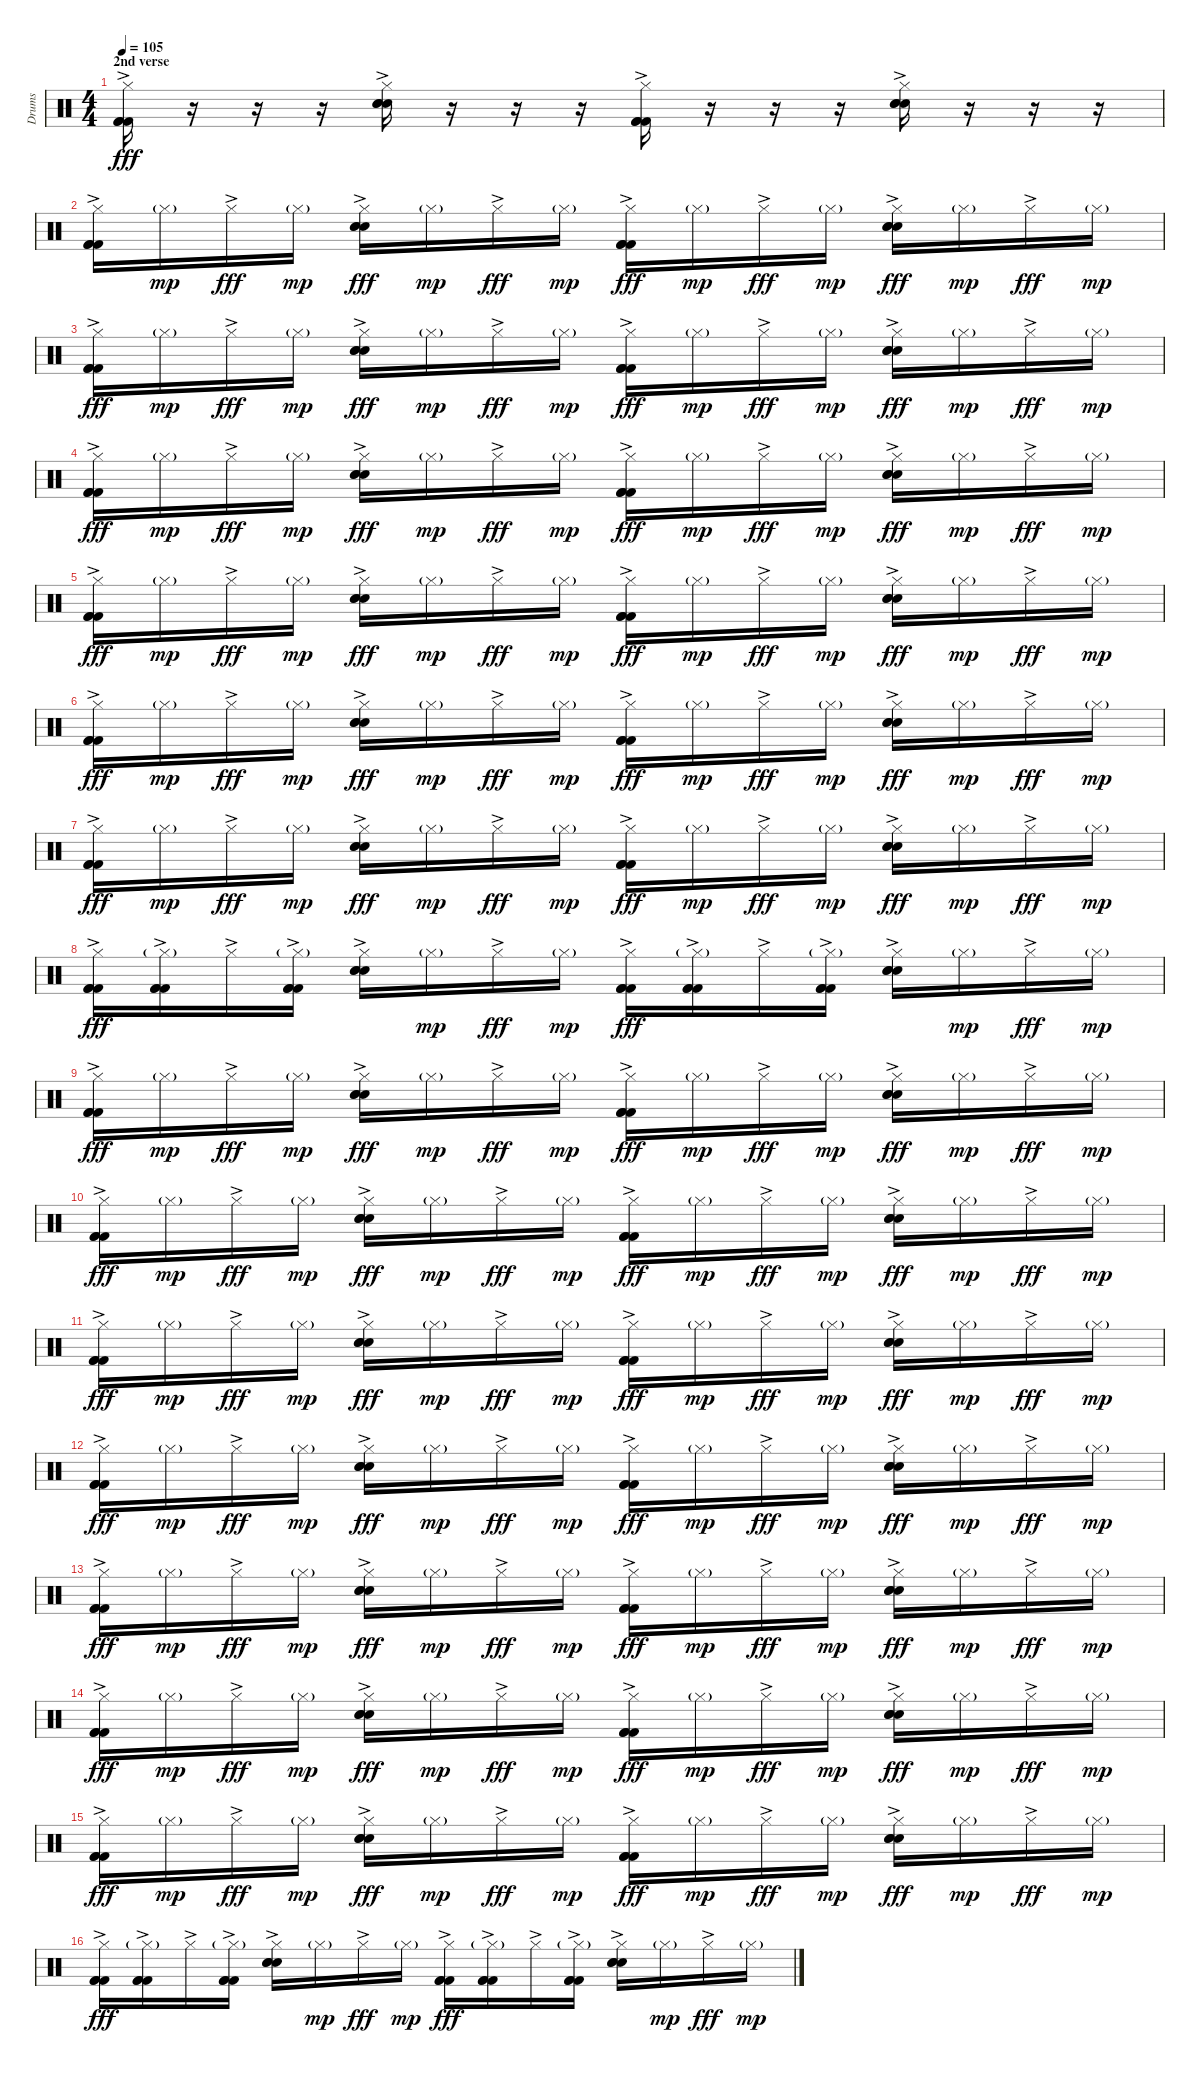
\track ("Drums" "Drums") {instrument percussion}
\staff {score}
\articulation defaults
\ts (4 4)
\section ("" "2nd verse")
\tempo 105
\clef neutral
\ks c
("Hi-Hat (closed)"{ac} "Kick (hit) 2"{ac} "Kick (hit) 2"{ac} "Kick (hit) 2"{ac}).16{dy fff} r.16 r.16 r.16 ("Hi-Hat (closed)"{ac} "Snare (hit) 2"{ac} "Snare (hit) 2"{ac} "Snare (hit) 2"{ac}).16 r.16 r.16 r.16 ("Hi-Hat (closed)"{ac} "Kick (hit) 2"{ac} "Kick (hit) 2"{ac} "Kick (hit) 2"{ac}).16 r.16 r.16 r.16 ("Hi-Hat (closed)"{ac} "Snare (hit) 2"{ac} "Snare (hit) 2"{ac} "Snare (hit) 2"{ac}).16 r.16 r.16 r.16 |
("Hi-Hat (closed)"{ac} "Kick (hit) 2"{ac} "Kick (hit) 2"{ac} "Kick (hit) 2"{ac}).16 "Hi-Hat (closed)"{g}.16{dy mp} "Hi-Hat (closed)"{ac}.16{dy fff} "Hi-Hat (closed)"{g}.16{dy mp} ("Hi-Hat (closed)"{ac} "Snare (hit) 2"{ac} "Snare (hit) 2"{ac} "Snare (hit) 2"{ac}).16{dy fff} "Hi-Hat (closed)"{g}.16{dy mp} "Hi-Hat (closed)"{ac}.16{dy fff} "Hi-Hat (closed)"{g}.16{dy mp} ("Hi-Hat (closed)"{ac} "Kick (hit) 2"{ac} "Kick (hit) 2"{ac} "Kick (hit) 2"{ac}).16{dy fff} "Hi-Hat (closed)"{g}.16{dy mp} "Hi-Hat (closed)"{ac}.16{dy fff} "Hi-Hat (closed)"{g}.16{dy mp} ("Hi-Hat (closed)"{ac} "Snare (hit) 2"{ac} "Snare (hit) 2"{ac} "Snare (hit) 2"{ac}).16{dy fff} "Hi-Hat (closed)"{g}.16{dy mp} "Hi-Hat (closed)"{ac}.16{dy fff} "Hi-Hat (closed)"{g}.16{dy mp} |
("Hi-Hat (closed)"{ac} "Kick (hit) 2"{ac} "Kick (hit) 2"{ac} "Kick (hit) 2"{ac}).16{dy fff} "Hi-Hat (closed)"{g}.16{dy mp} "Hi-Hat (closed)"{ac}.16{dy fff} "Hi-Hat (closed)"{g}.16{dy mp} ("Hi-Hat (closed)"{ac} "Snare (hit) 2"{ac} "Snare (hit) 2"{ac} "Snare (hit) 2"{ac}).16{dy fff} "Hi-Hat (closed)"{g}.16{dy mp} "Hi-Hat (closed)"{ac}.16{dy fff} "Hi-Hat (closed)"{g}.16{dy mp} ("Hi-Hat (closed)"{ac} "Kick (hit) 2"{ac} "Kick (hit) 2"{ac} "Kick (hit) 2"{ac}).16{dy fff} "Hi-Hat (closed)"{g}.16{dy mp} "Hi-Hat (closed)"{ac}.16{dy fff} "Hi-Hat (closed)"{g}.16{dy mp} ("Hi-Hat (closed)"{ac} "Snare (hit) 2"{ac} "Snare (hit) 2"{ac} "Snare (hit) 2"{ac}).16{dy fff} "Hi-Hat (closed)"{g}.16{dy mp} "Hi-Hat (closed)"{ac}.16{dy fff} "Hi-Hat (closed)"{g}.16{dy mp} |
("Hi-Hat (closed)"{ac} "Kick (hit) 2"{ac} "Kick (hit) 2"{ac} "Kick (hit) 2"{ac}).16{dy fff} "Hi-Hat (closed)"{g}.16{dy mp} "Hi-Hat (closed)"{ac}.16{dy fff} "Hi-Hat (closed)"{g}.16{dy mp} ("Hi-Hat (closed)"{ac} "Snare (hit) 2"{ac} "Snare (hit) 2"{ac} "Snare (hit) 2"{ac}).16{dy fff} "Hi-Hat (closed)"{g}.16{dy mp} "Hi-Hat (closed)"{ac}.16{dy fff} "Hi-Hat (closed)"{g}.16{dy mp} ("Hi-Hat (closed)"{ac} "Kick (hit) 2"{ac} "Kick (hit) 2"{ac} "Kick (hit) 2"{ac}).16{dy fff} "Hi-Hat (closed)"{g}.16{dy mp} "Hi-Hat (closed)"{ac}.16{dy fff} "Hi-Hat (closed)"{g}.16{dy mp} ("Hi-Hat (closed)"{ac} "Snare (hit) 2"{ac} "Snare (hit) 2"{ac} "Snare (hit) 2"{ac}).16{dy fff} "Hi-Hat (closed)"{g}.16{dy mp} "Hi-Hat (closed)"{ac}.16{dy fff} "Hi-Hat (closed)"{g}.16{dy mp} |
("Hi-Hat (closed)"{ac} "Kick (hit) 2"{ac} "Kick (hit) 2"{ac} "Kick (hit) 2"{ac}).16{dy fff} "Hi-Hat (closed)"{g}.16{dy mp} "Hi-Hat (closed)"{ac}.16{dy fff} "Hi-Hat (closed)"{g}.16{dy mp} ("Hi-Hat (closed)"{ac} "Snare (hit) 2"{ac} "Snare (hit) 2"{ac} "Snare (hit) 2"{ac}).16{dy fff} "Hi-Hat (closed)"{g}.16{dy mp} "Hi-Hat (closed)"{ac}.16{dy fff} "Hi-Hat (closed)"{g}.16{dy mp} ("Hi-Hat (closed)"{ac} "Kick (hit) 2"{ac} "Kick (hit) 2"{ac} "Kick (hit) 2"{ac}).16{dy fff} "Hi-Hat (closed)"{g}.16{dy mp} "Hi-Hat (closed)"{ac}.16{dy fff} "Hi-Hat (closed)"{g}.16{dy mp} ("Hi-Hat (closed)"{ac} "Snare (hit) 2"{ac} "Snare (hit) 2"{ac} "Snare (hit) 2"{ac}).16{dy fff} "Hi-Hat (closed)"{g}.16{dy mp} "Hi-Hat (closed)"{ac}.16{dy fff} "Hi-Hat (closed)"{g}.16{dy mp} |
("Hi-Hat (closed)"{ac} "Kick (hit) 2"{ac} "Kick (hit) 2"{ac} "Kick (hit) 2"{ac}).16{dy fff} "Hi-Hat (closed)"{g}.16{dy mp} "Hi-Hat (closed)"{ac}.16{dy fff} "Hi-Hat (closed)"{g}.16{dy mp} ("Hi-Hat (closed)"{ac} "Snare (hit) 2"{ac} "Snare (hit) 2"{ac} "Snare (hit) 2"{ac}).16{dy fff} "Hi-Hat (closed)"{g}.16{dy mp} "Hi-Hat (closed)"{ac}.16{dy fff} "Hi-Hat (closed)"{g}.16{dy mp} ("Hi-Hat (closed)"{ac} "Kick (hit) 2"{ac} "Kick (hit) 2"{ac} "Kick (hit) 2"{ac}).16{dy fff} "Hi-Hat (closed)"{g}.16{dy mp} "Hi-Hat (closed)"{ac}.16{dy fff} "Hi-Hat (closed)"{g}.16{dy mp} ("Hi-Hat (closed)"{ac} "Snare (hit) 2"{ac} "Snare (hit) 2"{ac} "Snare (hit) 2"{ac}).16{dy fff} "Hi-Hat (closed)"{g}.16{dy mp} "Hi-Hat (closed)"{ac}.16{dy fff} "Hi-Hat (closed)"{g}.16{dy mp} |
("Hi-Hat (closed)"{ac} "Kick (hit) 2"{ac} "Kick (hit) 2"{ac} "Kick (hit) 2"{ac}).16{dy fff} "Hi-Hat (closed)"{g}.16{dy mp} "Hi-Hat (closed)"{ac}.16{dy fff} "Hi-Hat (closed)"{g}.16{dy mp} ("Hi-Hat (closed)"{ac} "Snare (hit) 2"{ac} "Snare (hit) 2"{ac} "Snare (hit) 2"{ac}).16{dy fff} "Hi-Hat (closed)"{g}.16{dy mp} "Hi-Hat (closed)"{ac}.16{dy fff} "Hi-Hat (closed)"{g}.16{dy mp} ("Hi-Hat (closed)"{ac} "Kick (hit) 2"{ac} "Kick (hit) 2"{ac} "Kick (hit) 2"{ac}).16{dy fff} "Hi-Hat (closed)"{g}.16{dy mp} "Hi-Hat (closed)"{ac}.16{dy fff} "Hi-Hat (closed)"{g}.16{dy mp} ("Hi-Hat (closed)"{ac} "Snare (hit) 2"{ac} "Snare (hit) 2"{ac} "Snare (hit) 2"{ac}).16{dy fff} "Hi-Hat (closed)"{g}.16{dy mp} "Hi-Hat (closed)"{ac}.16{dy fff} "Hi-Hat (closed)"{g}.16{dy mp} |
("Hi-Hat (closed)"{ac} "Kick (hit) 2"{ac} "Kick (hit) 2"{ac} "Kick (hit) 2"{ac}).16{dy fff} ("Hi-Hat (closed)"{g} "Kick (hit) 2"{ac} "Kick (hit) 2"{ac} "Kick (hit) 2"{ac}).16 "Hi-Hat (closed)"{ac}.16 ("Hi-Hat (closed)"{g} "Kick (hit) 2"{ac} "Kick (hit) 2"{ac} "Kick (hit) 2"{ac}).16 ("Hi-Hat (closed)"{ac} "Snare (hit) 2"{ac} "Snare (hit) 2"{ac} "Snare (hit) 2"{ac}).16 "Hi-Hat (closed)"{g}.16{dy mp} "Hi-Hat (closed)"{ac}.16{dy fff} "Hi-Hat (closed)"{g}.16{dy mp} ("Hi-Hat (closed)"{ac} "Kick (hit) 2"{ac} "Kick (hit) 2"{ac} "Kick (hit) 2"{ac}).16{dy fff} ("Hi-Hat (closed)"{g} "Kick (hit) 2"{ac} "Kick (hit) 2"{ac} "Kick (hit) 2"{ac}).16 "Hi-Hat (closed)"{ac}.16 ("Hi-Hat (closed)"{g} "Kick (hit) 2"{ac} "Kick (hit) 2"{ac} "Kick (hit) 2"{ac}).16 ("Hi-Hat (closed)"{ac} "Snare (hit) 2"{ac} "Snare (hit) 2"{ac} "Snare (hit) 2"{ac}).16 "Hi-Hat (closed)"{g}.16{dy mp} "Hi-Hat (closed)"{ac}.16{dy fff} "Hi-Hat (closed)"{g}.16{dy mp} |
("Hi-Hat (closed)"{ac} "Kick (hit) 2"{ac} "Kick (hit) 2"{ac} "Kick (hit) 2"{ac}).16{dy fff} "Hi-Hat (closed)"{g}.16{dy mp} "Hi-Hat (closed)"{ac}.16{dy fff} "Hi-Hat (closed)"{g}.16{dy mp} ("Hi-Hat (closed)"{ac} "Snare (hit) 2"{ac} "Snare (hit) 2"{ac} "Snare (hit) 2"{ac}).16{dy fff} "Hi-Hat (closed)"{g}.16{dy mp} "Hi-Hat (closed)"{ac}.16{dy fff} "Hi-Hat (closed)"{g}.16{dy mp} ("Hi-Hat (closed)"{ac} "Kick (hit) 2"{ac} "Kick (hit) 2"{ac} "Kick (hit) 2"{ac}).16{dy fff} "Hi-Hat (closed)"{g}.16{dy mp} "Hi-Hat (closed)"{ac}.16{dy fff} "Hi-Hat (closed)"{g}.16{dy mp} ("Hi-Hat (closed)"{ac} "Snare (hit) 2"{ac} "Snare (hit) 2"{ac} "Snare (hit) 2"{ac}).16{dy fff} "Hi-Hat (closed)"{g}.16{dy mp} "Hi-Hat (closed)"{ac}.16{dy fff} "Hi-Hat (closed)"{g}.16{dy mp} |
("Hi-Hat (closed)"{ac} "Kick (hit) 2"{ac} "Kick (hit) 2"{ac} "Kick (hit) 2"{ac}).16{dy fff} "Hi-Hat (closed)"{g}.16{dy mp} "Hi-Hat (closed)"{ac}.16{dy fff} "Hi-Hat (closed)"{g}.16{dy mp} ("Hi-Hat (closed)"{ac} "Snare (hit) 2"{ac} "Snare (hit) 2"{ac} "Snare (hit) 2"{ac}).16{dy fff} "Hi-Hat (closed)"{g}.16{dy mp} "Hi-Hat (closed)"{ac}.16{dy fff} "Hi-Hat (closed)"{g}.16{dy mp} ("Hi-Hat (closed)"{ac} "Kick (hit) 2"{ac} "Kick (hit) 2"{ac} "Kick (hit) 2"{ac}).16{dy fff} "Hi-Hat (closed)"{g}.16{dy mp} "Hi-Hat (closed)"{ac}.16{dy fff} "Hi-Hat (closed)"{g}.16{dy mp} ("Hi-Hat (closed)"{ac} "Snare (hit) 2"{ac} "Snare (hit) 2"{ac} "Snare (hit) 2"{ac}).16{dy fff} "Hi-Hat (closed)"{g}.16{dy mp} "Hi-Hat (closed)"{ac}.16{dy fff} "Hi-Hat (closed)"{g}.16{dy mp} |
("Hi-Hat (closed)"{ac} "Kick (hit) 2"{ac} "Kick (hit) 2"{ac} "Kick (hit) 2"{ac}).16{dy fff} "Hi-Hat (closed)"{g}.16{dy mp} "Hi-Hat (closed)"{ac}.16{dy fff} "Hi-Hat (closed)"{g}.16{dy mp} ("Hi-Hat (closed)"{ac} "Snare (hit) 2"{ac} "Snare (hit) 2"{ac} "Snare (hit) 2"{ac}).16{dy fff} "Hi-Hat (closed)"{g}.16{dy mp} "Hi-Hat (closed)"{ac}.16{dy fff} "Hi-Hat (closed)"{g}.16{dy mp} ("Hi-Hat (closed)"{ac} "Kick (hit) 2"{ac} "Kick (hit) 2"{ac} "Kick (hit) 2"{ac}).16{dy fff} "Hi-Hat (closed)"{g}.16{dy mp} "Hi-Hat (closed)"{ac}.16{dy fff} "Hi-Hat (closed)"{g}.16{dy mp} ("Hi-Hat (closed)"{ac} "Snare (hit) 2"{ac} "Snare (hit) 2"{ac} "Snare (hit) 2"{ac}).16{dy fff} "Hi-Hat (closed)"{g}.16{dy mp} "Hi-Hat (closed)"{ac}.16{dy fff} "Hi-Hat (closed)"{g}.16{dy mp} |
("Hi-Hat (closed)"{ac} "Kick (hit) 2"{ac} "Kick (hit) 2"{ac} "Kick (hit) 2"{ac}).16{dy fff} "Hi-Hat (closed)"{g}.16{dy mp} "Hi-Hat (closed)"{ac}.16{dy fff} "Hi-Hat (closed)"{g}.16{dy mp} ("Hi-Hat (closed)"{ac} "Snare (hit) 2"{ac} "Snare (hit) 2"{ac} "Snare (hit) 2"{ac}).16{dy fff} "Hi-Hat (closed)"{g}.16{dy mp} "Hi-Hat (closed)"{ac}.16{dy fff} "Hi-Hat (closed)"{g}.16{dy mp} ("Hi-Hat (closed)"{ac} "Kick (hit) 2"{ac} "Kick (hit) 2"{ac} "Kick (hit) 2"{ac}).16{dy fff} "Hi-Hat (closed)"{g}.16{dy mp} "Hi-Hat (closed)"{ac}.16{dy fff} "Hi-Hat (closed)"{g}.16{dy mp} ("Hi-Hat (closed)"{ac} "Snare (hit) 2"{ac} "Snare (hit) 2"{ac} "Snare (hit) 2"{ac}).16{dy fff} "Hi-Hat (closed)"{g}.16{dy mp} "Hi-Hat (closed)"{ac}.16{dy fff} "Hi-Hat (closed)"{g}.16{dy mp} |
("Hi-Hat (closed)"{ac} "Kick (hit) 2"{ac} "Kick (hit) 2"{ac} "Kick (hit) 2"{ac}).16{dy fff} "Hi-Hat (closed)"{g}.16{dy mp} "Hi-Hat (closed)"{ac}.16{dy fff} "Hi-Hat (closed)"{g}.16{dy mp} ("Hi-Hat (closed)"{ac} "Snare (hit) 2"{ac} "Snare (hit) 2"{ac} "Snare (hit) 2"{ac}).16{dy fff} "Hi-Hat (closed)"{g}.16{dy mp} "Hi-Hat (closed)"{ac}.16{dy fff} "Hi-Hat (closed)"{g}.16{dy mp} ("Hi-Hat (closed)"{ac} "Kick (hit) 2"{ac} "Kick (hit) 2"{ac} "Kick (hit) 2"{ac}).16{dy fff} "Hi-Hat (closed)"{g}.16{dy mp} "Hi-Hat (closed)"{ac}.16{dy fff} "Hi-Hat (closed)"{g}.16{dy mp} ("Hi-Hat (closed)"{ac} "Snare (hit) 2"{ac} "Snare (hit) 2"{ac} "Snare (hit) 2"{ac}).16{dy fff} "Hi-Hat (closed)"{g}.16{dy mp} "Hi-Hat (closed)"{ac}.16{dy fff} "Hi-Hat (closed)"{g}.16{dy mp} |
("Hi-Hat (closed)"{ac} "Kick (hit) 2"{ac} "Kick (hit) 2"{ac} "Kick (hit) 2"{ac}).16{dy fff} "Hi-Hat (closed)"{g}.16{dy mp} "Hi-Hat (closed)"{ac}.16{dy fff} "Hi-Hat (closed)"{g}.16{dy mp} ("Hi-Hat (closed)"{ac} "Snare (hit) 2"{ac} "Snare (hit) 2"{ac} "Snare (hit) 2"{ac}).16{dy fff} "Hi-Hat (closed)"{g}.16{dy mp} "Hi-Hat (closed)"{ac}.16{dy fff} "Hi-Hat (closed)"{g}.16{dy mp} ("Hi-Hat (closed)"{ac} "Kick (hit) 2"{ac} "Kick (hit) 2"{ac} "Kick (hit) 2"{ac}).16{dy fff} "Hi-Hat (closed)"{g}.16{dy mp} "Hi-Hat (closed)"{ac}.16{dy fff} "Hi-Hat (closed)"{g}.16{dy mp} ("Hi-Hat (closed)"{ac} "Snare (hit) 2"{ac} "Snare (hit) 2"{ac} "Snare (hit) 2"{ac}).16{dy fff} "Hi-Hat (closed)"{g}.16{dy mp} "Hi-Hat (closed)"{ac}.16{dy fff} "Hi-Hat (closed)"{g}.16{dy mp} |
("Hi-Hat (closed)"{ac} "Kick (hit) 2"{ac} "Kick (hit) 2"{ac} "Kick (hit) 2"{ac}).16{dy fff} "Hi-Hat (closed)"{g}.16{dy mp} "Hi-Hat (closed)"{ac}.16{dy fff} "Hi-Hat (closed)"{g}.16{dy mp} ("Hi-Hat (closed)"{ac} "Snare (hit) 2"{ac} "Snare (hit) 2"{ac} "Snare (hit) 2"{ac}).16{dy fff} "Hi-Hat (closed)"{g}.16{dy mp} "Hi-Hat (closed)"{ac}.16{dy fff} "Hi-Hat (closed)"{g}.16{dy mp} ("Hi-Hat (closed)"{ac} "Kick (hit) 2"{ac} "Kick (hit) 2"{ac} "Kick (hit) 2"{ac}).16{dy fff} "Hi-Hat (closed)"{g}.16{dy mp} "Hi-Hat (closed)"{ac}.16{dy fff} "Hi-Hat (closed)"{g}.16{dy mp} ("Hi-Hat (closed)"{ac} "Snare (hit) 2"{ac} "Snare (hit) 2"{ac} "Snare (hit) 2"{ac}).16{dy fff} "Hi-Hat (closed)"{g}.16{dy mp} "Hi-Hat (closed)"{ac}.16{dy fff} "Hi-Hat (closed)"{g}.16{dy mp} |
("Hi-Hat (closed)"{ac} "Kick (hit) 2"{ac} "Kick (hit) 2"{ac} "Kick (hit) 2"{ac}).16{dy fff} ("Hi-Hat (closed)"{g} "Kick (hit) 2"{ac} "Kick (hit) 2"{ac} "Kick (hit) 2"{ac}).16 "Hi-Hat (closed)"{ac}.16 ("Hi-Hat (closed)"{g} "Kick (hit) 2"{ac} "Kick (hit) 2"{ac} "Kick (hit) 2"{ac}).16 ("Hi-Hat (closed)"{ac} "Snare (hit) 2"{ac} "Snare (hit) 2"{ac} "Snare (hit) 2"{ac}).16 "Hi-Hat (closed)"{g}.16{dy mp} "Hi-Hat (closed)"{ac}.16{dy fff} "Hi-Hat (closed)"{g}.16{dy mp} ("Hi-Hat (closed)"{ac} "Kick (hit) 2"{ac} "Kick (hit) 2"{ac} "Kick (hit) 2"{ac}).16{dy fff} ("Hi-Hat (closed)"{g} "Kick (hit) 2"{ac} "Kick (hit) 2"{ac} "Kick (hit) 2"{ac}).16 "Hi-Hat (closed)"{ac}.16 ("Hi-Hat (closed)"{g} "Kick (hit) 2"{ac} "Kick (hit) 2"{ac} "Kick (hit) 2"{ac}).16 ("Hi-Hat (closed)"{ac} "Snare (hit) 2"{ac} "Snare (hit) 2"{ac} "Snare (hit) 2"{ac}).16 "Hi-Hat (closed)"{g}.16{dy mp} "Hi-Hat (closed)"{ac}.16{dy fff} "Hi-Hat (closed)"{g}.16{dy mp}
